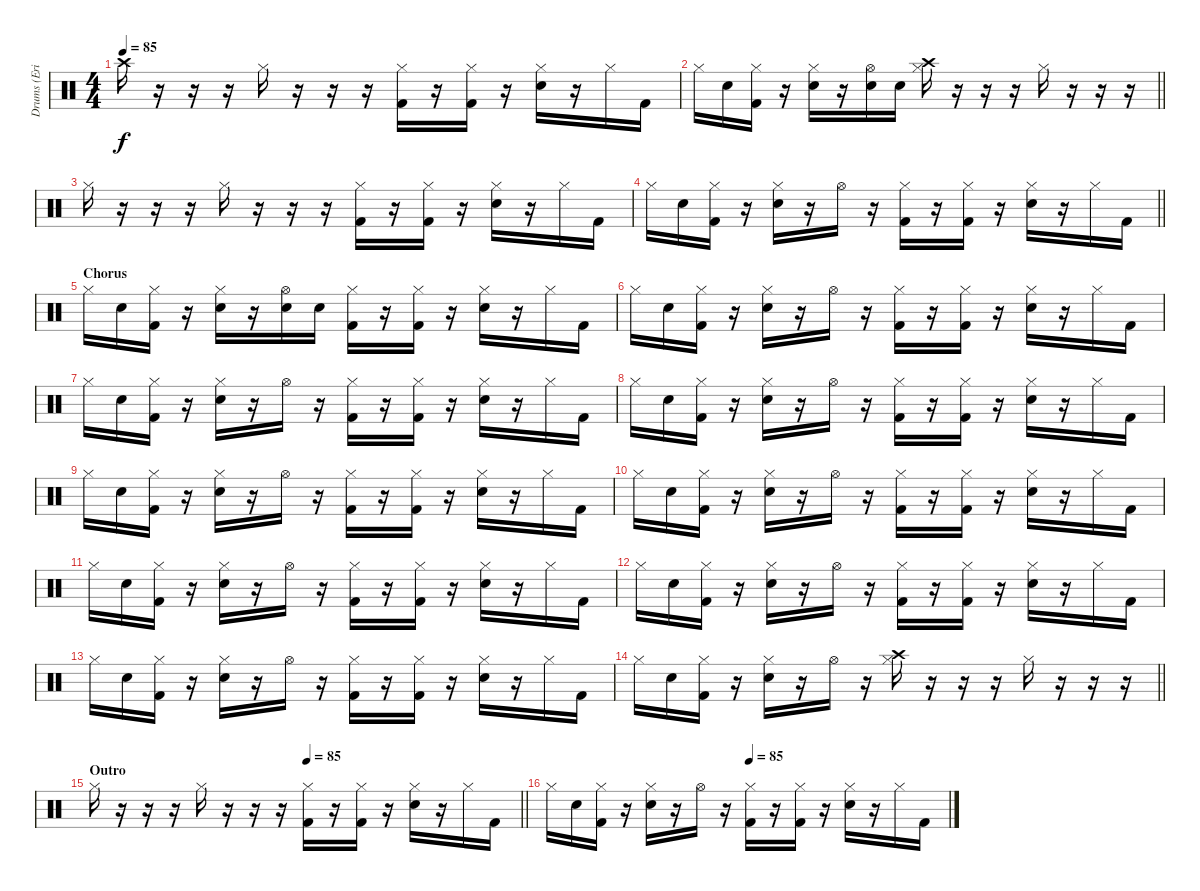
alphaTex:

\track ("Drums (Eric Kretz)" "Drums (Eri") {instrument percussion}
\staff {score}
\articulation defaults
\ts (4 4)
\tempo 85
\clef neutral
\ks c "Crash high (hit)".16{dy f}
r.16 r.16 r.16 "Hi-Hat (closed)".16 r.16 r.16 r.16 ("Hi-Hat (closed)" "Kick (hit) 2").16 r.16 ("Hi-Hat (closed)" "Kick (hit) 2").16 r.16 ("Hi-Hat (closed)" "Electric Snare (hit)").16 r.16 "Hi-Hat (closed)".16 "Kick (hit) 2".16 |
\barLineRight lightlight "Hi-Hat (closed)".16 "Electric Snare (hit)".16
("Hi-Hat (closed)" "Kick (hit) 2").16 r.16 ("Hi-Hat (closed)" "Electric Snare (hit)").16 r.16 ("Hi-Hat (open)" "Electric Snare (hit)").16 "Electric Snare (hit)".16 ("Hi-Hat (closed)" "Crash high (hit)").16 r.16 r.16 r.16 "Hi-Hat (closed)".16 r.16 r.16 r.16 |
\section ("" "")
"Hi-Hat (closed)".16 r.16 r.16 r.16 "Hi-Hat (closed)".16 r.16 r.16 r.16 ("Hi-Hat (closed)" "Kick (hit) 2").16 r.16 ("Hi-Hat (closed)" "Kick (hit) 2").16 r.16 ("Hi-Hat (closed)" "Electric Snare (hit)").16 r.16 "Hi-Hat (closed)".16 "Kick (hit) 2".16 |
\barLineRight lightlight "Hi-Hat (closed)".16 "Electric Snare (hit)".16
("Hi-Hat (closed)" "Kick (hit) 2").16 r.16 ("Hi-Hat (closed)" "Electric Snare (hit)").16 r.16 "Hi-Hat (open)".16 r.16 ("Hi-Hat (closed)" "Kick (hit) 2").16 r.16 ("Hi-Hat (closed)" "Kick (hit) 2").16 r.16 ("Hi-Hat (closed)" "Electric Snare (hit)").16 r.16 "Hi-Hat (closed)".16 "Kick (hit) 2".16 |
\section ("" "Chorus")
"Hi-Hat (closed)".16 "Electric Snare (hit)".16 ("Hi-Hat (closed)" "Kick (hit) 2").16 r.16 ("Hi-Hat (closed)" "Electric Snare (hit)").16 r.16 ("Hi-Hat (open)" "Electric Snare (hit)").16 "Electric Snare (hit)".16 ("Hi-Hat (closed)" "Kick (hit) 2").16 r.16 ("Hi-Hat (closed)" "Kick (hit) 2").16 r.16 ("Hi-Hat (closed)" "Electric Snare (hit)").16 r.16 "Hi-Hat (closed)".16 "Kick (hit) 2".16 |
"Hi-Hat (closed)".16 "Electric Snare (hit)".16 ("Hi-Hat (closed)" "Kick (hit) 2").16 r.16 ("Hi-Hat (closed)" "Electric Snare (hit)").16 r.16 "Hi-Hat (open)".16 r.16 ("Hi-Hat (closed)" "Kick (hit) 2").16 r.16 ("Hi-Hat (closed)" "Kick (hit) 2").16 r.16 ("Hi-Hat (closed)" "Electric Snare (hit)").16 r.16 "Hi-Hat (closed)".16 "Kick (hit) 2".16 |
"Hi-Hat (closed)".16 "Electric Snare (hit)".16 ("Hi-Hat (closed)" "Kick (hit) 2").16 r.16 ("Hi-Hat (closed)" "Electric Snare (hit)").16 r.16 "Hi-Hat (open)".16 r.16 ("Hi-Hat (closed)" "Kick (hit) 2").16 r.16 ("Hi-Hat (closed)" "Kick (hit) 2").16 r.16 ("Hi-Hat (closed)" "Electric Snare (hit)").16 r.16 "Hi-Hat (closed)".16 "Kick (hit) 2".16 |
"Hi-Hat (closed)".16 "Electric Snare (hit)".16 ("Hi-Hat (closed)" "Kick (hit) 2").16 r.16 ("Hi-Hat (closed)" "Electric Snare (hit)").16 r.16 "Hi-Hat (open)".16 r.16 ("Hi-Hat (closed)" "Kick (hit) 2").16 r.16 ("Hi-Hat (closed)" "Kick (hit) 2").16 r.16 ("Hi-Hat (closed)" "Electric Snare (hit)").16 r.16 "Hi-Hat (closed)".16 "Kick (hit) 2".16 |
"Hi-Hat (closed)".16 "Electric Snare (hit)".16 ("Hi-Hat (closed)" "Kick (hit) 2").16 r.16 ("Hi-Hat (closed)" "Electric Snare (hit)").16 r.16 "Hi-Hat (open)".16 r.16 ("Hi-Hat (closed)" "Kick (hit) 2").16 r.16 ("Hi-Hat (closed)" "Kick (hit) 2").16 r.16 ("Hi-Hat (closed)" "Electric Snare (hit)").16 r.16 "Hi-Hat (closed)".16 "Kick (hit) 2".16 |
"Hi-Hat (closed)".16 "Electric Snare (hit)".16 ("Hi-Hat (closed)" "Kick (hit) 2").16 r.16 ("Hi-Hat (closed)" "Electric Snare (hit)").16 r.16 "Hi-Hat (open)".16 r.16 ("Hi-Hat (closed)" "Kick (hit) 2").16 r.16 ("Hi-Hat (closed)" "Kick (hit) 2").16 r.16 ("Hi-Hat (closed)" "Electric Snare (hit)").16 r.16 "Hi-Hat (closed)".16 "Kick (hit) 2".16 |
"Hi-Hat (closed)".16 "Electric Snare (hit)".16 ("Hi-Hat (closed)" "Kick (hit) 2").16 r.16 ("Hi-Hat (closed)" "Electric Snare (hit)").16 r.16 "Hi-Hat (open)".16 r.16 ("Hi-Hat (closed)" "Kick (hit) 2").16 r.16 ("Hi-Hat (closed)" "Kick (hit) 2").16 r.16 ("Hi-Hat (closed)" "Electric Snare (hit)").16 r.16 "Hi-Hat (closed)".16 "Kick (hit) 2".16 |
"Hi-Hat (closed)".16 "Electric Snare (hit)".16 ("Hi-Hat (closed)" "Kick (hit) 2").16 r.16 ("Hi-Hat (closed)" "Electric Snare (hit)").16 r.16 "Hi-Hat (open)".16 r.16 ("Hi-Hat (closed)" "Kick (hit) 2").16 r.16 ("Hi-Hat (closed)" "Kick (hit) 2").16 r.16 ("Hi-Hat (closed)" "Electric Snare (hit)").16 r.16 "Hi-Hat (closed)".16 "Kick (hit) 2".16 |
"Hi-Hat (closed)".16 "Electric Snare (hit)".16 ("Hi-Hat (closed)" "Kick (hit) 2").16 r.16 ("Hi-Hat (closed)" "Electric Snare (hit)").16 r.16 "Hi-Hat (open)".16 r.16 ("Hi-Hat (closed)" "Kick (hit) 2").16 r.16 ("Hi-Hat (closed)" "Kick (hit) 2").16 r.16 ("Hi-Hat (closed)" "Electric Snare (hit)").16 r.16 "Hi-Hat (closed)".16 "Kick (hit) 2".16 |
\barLineRight lightlight "Hi-Hat (closed)".16 "Electric Snare (hit)".16
("Hi-Hat (closed)" "Kick (hit) 2").16 r.16 ("Hi-Hat (closed)" "Electric Snare (hit)").16 r.16 "Hi-Hat (open)".16 r.16 ("Hi-Hat (closed)" "Crash high (hit)").16 r.16 r.16 r.16 "Hi-Hat (closed)".16 r.16 r.16 r.16 |
\section ("" "Outro")
\tempo (85 0.5)
\barLineRight lightlight "Hi-Hat (closed)".16
r.16 r.16 r.16 "Hi-Hat (closed)".16 r.16 r.16 r.16 ("Hi-Hat (closed)" "Kick (hit) 2").16{volume 16} r.16 ("Hi-Hat (closed)" "Kick (hit) 2").16 r.16 ("Hi-Hat (closed)" "Electric Snare (hit)").16 r.16 "Hi-Hat (closed)".16 "Kick (hit) 2".16 |
\tempo (85 0.5)
"Hi-Hat (closed)".16 "Electric Snare (hit)".16 ("Hi-Hat (closed)" "Kick (hit) 2").16 r.16 ("Hi-Hat (closed)" "Electric Snare (hit)").16 r.16 "Hi-Hat (open)".16 r.16 ("Hi-Hat (closed)" "Kick (hit) 2").16{volume 16} r.16 ("Hi-Hat (closed)" "Kick (hit) 2").16 r.16 ("Hi-Hat (closed)" "Electric Snare (hit)").16 r.16 "Hi-Hat (closed)".16 "Kick (hit) 2".16
